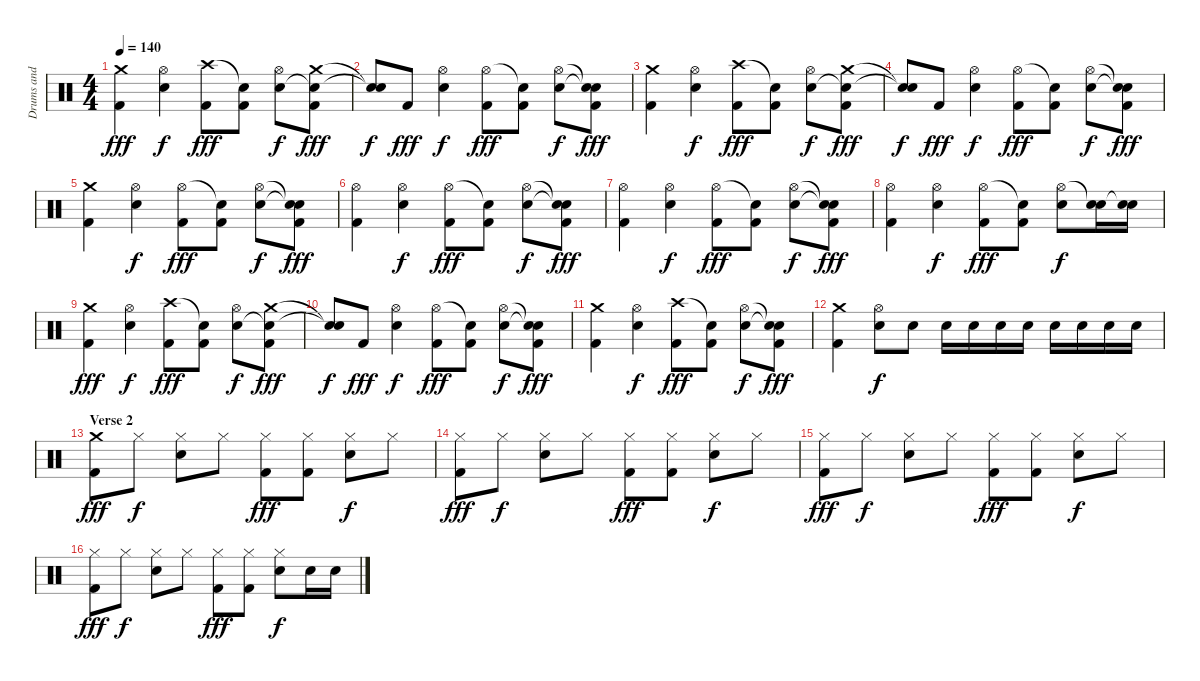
\track ("Drums and Percussion" "Drums and ") {instrument percussion}
\staff {score}
\articulation defaults
\ts (4 4)
\tempo 140
\clef neutral
\ks c
("Crash medium (hit)" "Kick (hit) 2").4{dy fff} ("Hi-Hat (open)" "Snare (hit) 2").4{dy f} ("Crash high (hit)" "Kick (hit) 2").8{dy fff} ("Snare (hit)"{t} "Kick (hit) 2").8 ("Hi-Hat (open)" "Snare (hit) 2").8{dy f} ("Crash medium (hit)" "Snare (hit)"{t} "Kick (hit) 2").8{dy fff} |
("Snare (hit)"{t} "Snare (hit)"{t}).8{dy f} "Kick (hit) 2".8{dy fff} ("Hi-Hat (open)" "Snare (hit) 2").4{dy f} ("Hi-Hat (open)" "Kick (hit) 2").8{dy fff} ("Snare (hit)"{t} "Kick (hit) 2").8 ("Hi-Hat (open)" "Snare (hit) 2").8{dy f} ("Snare (hit)"{t} "Snare (hit)"{t} "Kick (hit) 2").8{dy fff} |
("Crash medium (hit)" "Kick (hit) 2").4 ("Hi-Hat (open)" "Snare (hit) 2").4{dy f} ("Crash high (hit)" "Kick (hit) 2").8{dy fff} ("Snare (hit)"{t} "Kick (hit) 2").8 ("Hi-Hat (open)" "Snare (hit) 2").8{dy f} ("Crash medium (hit)" "Snare (hit)"{t} "Kick (hit) 2").8{dy fff} |
("Snare (hit)"{t} "Snare (hit)"{t}).8{dy f} "Kick (hit) 2".8{dy fff} ("Hi-Hat (open)" "Snare (hit) 2").4{dy f} ("Hi-Hat (open)" "Kick (hit) 2").8{dy fff} ("Snare (hit)"{t} "Kick (hit) 2").8 ("Hi-Hat (open)" "Snare (hit) 2").8{dy f} ("Snare (hit)"{t} "Snare (hit)"{t} "Kick (hit) 2").8{dy fff} |
("Crash medium (hit)" "Kick (hit) 2").4 ("Hi-Hat (open)" "Snare (hit) 2").4{dy f} ("Hi-Hat (open)" "Kick (hit) 2").8{dy fff} ("Snare (hit)"{t} "Kick (hit) 2").8 ("Hi-Hat (open)" "Snare (hit) 2").8{dy f} ("Snare (hit)"{t} "Snare (hit)"{t} "Kick (hit) 2").8{dy fff} |
("Hi-Hat (open)" "Kick (hit) 2").4 ("Hi-Hat (open)" "Snare (hit) 2").4{dy f} ("Hi-Hat (open)" "Kick (hit) 2").8{dy fff} ("Snare (hit)"{t} "Kick (hit) 2").8 ("Hi-Hat (open)" "Snare (hit) 2").8{dy f} ("Snare (hit)"{t} "Snare (hit)"{t} "Kick (hit) 2").8{dy fff} |
("Hi-Hat (open)" "Kick (hit) 2").4 ("Hi-Hat (open)" "Snare (hit) 2").4{dy f} ("Hi-Hat (open)" "Kick (hit) 2").8{dy fff} ("Snare (hit)"{t} "Kick (hit) 2").8 ("Hi-Hat (open)" "Snare (hit) 2").8{dy f} ("Snare (hit)"{t} "Snare (hit)"{t} "Kick (hit) 2").8{dy fff} |
("Hi-Hat (open)" "Kick (hit) 2").4 ("Hi-Hat (open)" "Snare (hit) 2").4{dy f} ("Hi-Hat (open)" "Kick (hit) 2").8{dy fff} ("Snare (hit)"{t} "Kick (hit) 2").8 ("Hi-Hat (open)" "Snare (hit) 2").8{dy f} ("Snare (hit)"{t} "Snare (hit) 2").16 ("Snare (hit)"{t} "Snare (hit) 2").16 |
("Crash medium (hit)" "Kick (hit) 2").4{dy fff} ("Hi-Hat (open)" "Snare (hit) 2").4{dy f} ("Crash high (hit)" "Kick (hit) 2").8{dy fff} ("Snare (hit)"{t} "Kick (hit) 2").8 ("Hi-Hat (open)" "Snare (hit) 2").8{dy f} ("Crash medium (hit)" "Snare (hit)"{t} "Kick (hit) 2").8{dy fff} |
("Snare (hit)"{t} "Snare (hit)"{t}).8{dy f} "Kick (hit) 2".8{dy fff} ("Hi-Hat (open)" "Snare (hit) 2").4{dy f} ("Hi-Hat (open)" "Kick (hit) 2").8{dy fff} ("Snare (hit)"{t} "Kick (hit) 2").8 ("Hi-Hat (open)" "Snare (hit) 2").8{dy f} ("Snare (hit)"{t} "Snare (hit)"{t} "Kick (hit) 2").8{dy fff} |
("Crash medium (hit)" "Kick (hit) 2").4 ("Hi-Hat (open)" "Snare (hit) 2").4{dy f} ("Crash high (hit)" "Kick (hit) 2").8{dy fff} ("Snare (hit)"{t} "Kick (hit) 2").8 ("Hi-Hat (open)" "Snare (hit) 2").8{dy f} ("Snare (hit)"{t} "Snare (hit)"{t} "Kick (hit) 2").8{dy fff} |
("Crash medium (hit)" "Kick (hit) 2").4 ("Hi-Hat (open)" "Snare (hit) 2").8{dy f} "Snare (hit) 2".8 "Snare (hit) 2".16 "Snare (hit) 2".16 "Snare (hit) 2".16 "Snare (hit) 2".16 "Snare (hit) 2".16 "Snare (hit) 2".16 "Snare (hit) 2".16 "Snare (hit) 2".16 |
\section ("" "Verse 2")
("Crash medium (hit)" "Kick (hit) 2").8{dy fff} "Hi-Hat (closed)".8{dy f} ("Hi-Hat (closed)" "Snare (hit) 2").8 "Hi-Hat (closed)".8 ("Hi-Hat (closed)" "Kick (hit) 2").8{dy fff} ("Hi-Hat (closed)" "Kick (hit) 2").8 ("Hi-Hat (closed)" "Snare (hit) 2").8{dy f} "Hi-Hat (closed)".8 |
("Hi-Hat (closed)" "Kick (hit) 2").8{dy fff} "Hi-Hat (closed)".8{dy f} ("Hi-Hat (closed)" "Snare (hit) 2").8 "Hi-Hat (closed)".8 ("Hi-Hat (closed)" "Kick (hit) 2").8{dy fff} ("Hi-Hat (closed)" "Kick (hit) 2").8 ("Hi-Hat (closed)" "Snare (hit) 2").8{dy f} "Hi-Hat (closed)".8 |
("Hi-Hat (closed)" "Kick (hit) 2").8{dy fff} "Hi-Hat (closed)".8{dy f} ("Hi-Hat (closed)" "Snare (hit) 2").8 "Hi-Hat (closed)".8 ("Hi-Hat (closed)" "Kick (hit) 2").8{dy fff} ("Hi-Hat (closed)" "Kick (hit) 2").8 ("Hi-Hat (closed)" "Snare (hit) 2").8{dy f} "Hi-Hat (closed)".8 |
("Hi-Hat (closed)" "Kick (hit) 2").8{dy fff} "Hi-Hat (closed)".8{dy f} ("Hi-Hat (closed)" "Snare (hit) 2").8 "Hi-Hat (closed)".8 ("Hi-Hat (closed)" "Kick (hit) 2").8{dy fff} ("Hi-Hat (closed)" "Kick (hit) 2").8 ("Hi-Hat (closed)" "Snare (hit) 2").8{dy f} "Snare (hit) 2".16 "Snare (hit) 2".16
